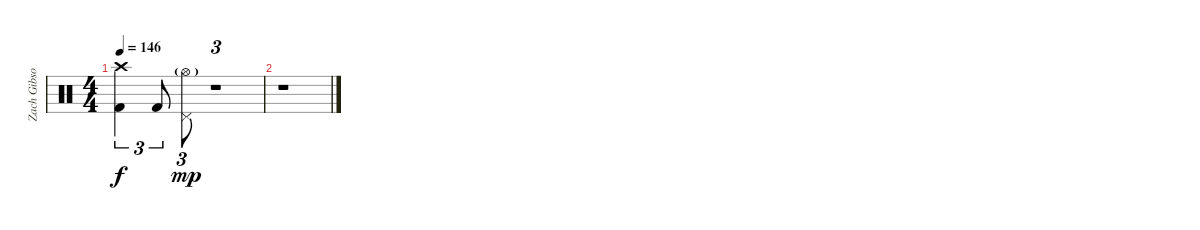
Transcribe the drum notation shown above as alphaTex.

\track ("Zach Gibson (Drums)" "Zach Gibso") {instrument percussion}
\staff {score}
\articulation defaults
\ts (4 4)
\tempo 146
\clef neutral
\ks c
("Crash high (hit)" "Kick (hit) 2").4{tu (3 2) dy f} "Kick (hit) 2".8{tu (3 2)} ("Pedal Hi-Hat (hit)" "Hi-Hat (open)"{g}).8{tu (3 2) dy mp} r.1{tu (3 2)} |
r.1
